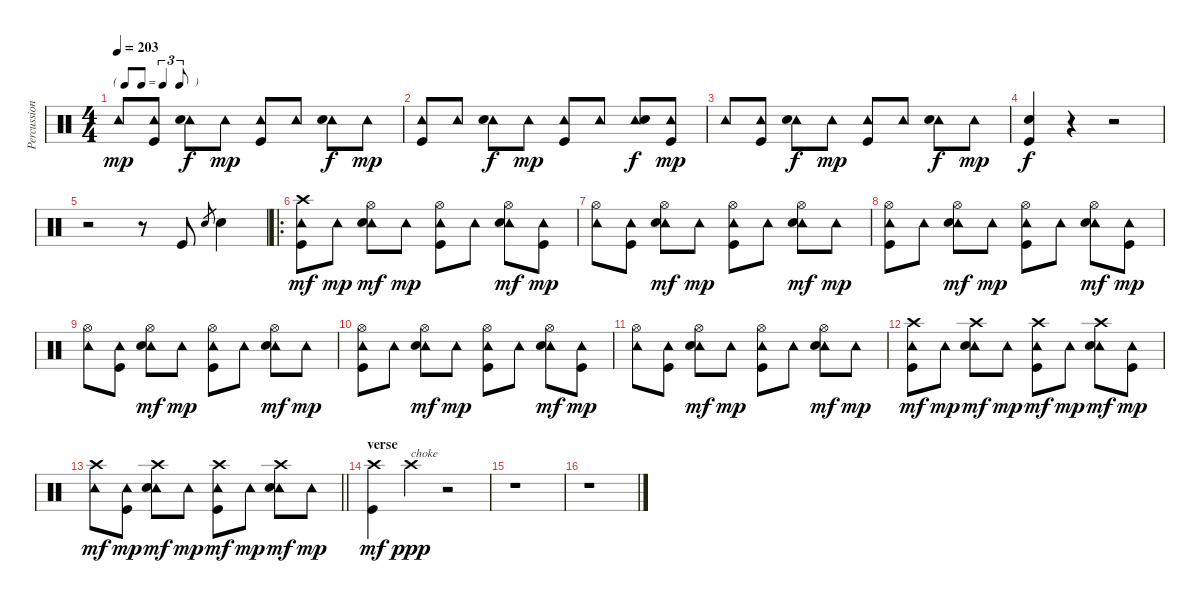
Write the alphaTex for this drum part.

\track ("Percussion" "Percussion") {instrument percussion}
\staff {score}
\articulation defaults
\ts (4 4)
\tf triplet8th
\tempo 203
\clef neutral
\ks c "Tambourine (hit)".8{dy mp}
("Tambourine (hit)" "Kick (hit)").8 ("Tambourine (hit)" "Snare (hit) 2").8{dy f} "Tambourine (hit)".8{dy mp} ("Tambourine (hit)" "Kick (hit)").8 "Tambourine (hit)".8 ("Tambourine (hit)" "Snare (hit) 2").8{dy f} "Tambourine (hit)".8{dy mp} |
("Tambourine (hit)" "Kick (hit)").8 "Tambourine (hit)".8 ("Tambourine (hit)" "Snare (hit) 2").8{dy f} "Tambourine (hit)".8{dy mp} ("Tambourine (hit)" "Kick (hit)").8 "Tambourine (hit)".8 ("Tambourine (hit)" "Snare (hit) 2").8{dy f} ("Tambourine (hit)" "Kick (hit)").8{dy mp} |
"Tambourine (hit)".8 ("Tambourine (hit)" "Kick (hit)").8 ("Tambourine (hit)" "Snare (hit) 2").8{dy f} "Tambourine (hit)".8{dy mp} ("Tambourine (hit)" "Kick (hit)").8 "Tambourine (hit)".8 ("Tambourine (hit)" "Snare (hit) 2").8{dy f} "Tambourine (hit)".8{dy mp} |
("Snare (hit) 2" "Kick (hit)").4{dy f} r.4 r.2 |
r.2 r.8 "Kick (hit)".8 "Snare (hit) 2".8{gr} "Snare (hit) 2".4 |
\ro
("Tambourine (hit)" "Crash high (hit)" "Kick (hit)").8{dy mf} "Tambourine (hit)".8{dy mp} ("Tambourine (hit)" "Hi-Hat (open)" "Snare (hit) 2").8{dy mf} "Tambourine (hit)".8{dy mp} ("Tambourine (hit)" "Hi-Hat (open)" "Kick (hit)").8 "Tambourine (hit)".8 ("Tambourine (hit)" "Hi-Hat (open)" "Snare (hit) 2").8{dy mf} ("Tambourine (hit)" "Kick (hit)").8{dy mp} |
("Tambourine (hit)" "Hi-Hat (open)").8 ("Tambourine (hit)" "Kick (hit)").8 ("Tambourine (hit)" "Hi-Hat (open)" "Snare (hit) 2").8{dy mf} "Tambourine (hit)".8{dy mp} ("Tambourine (hit)" "Hi-Hat (open)" "Kick (hit)").8 "Tambourine (hit)".8 ("Tambourine (hit)" "Hi-Hat (open)" "Snare (hit) 2").8{dy mf} "Tambourine (hit)".8{dy mp} |
("Tambourine (hit)" "Hi-Hat (open)" "Kick (hit)").8 "Tambourine (hit)".8 ("Tambourine (hit)" "Hi-Hat (open)" "Snare (hit) 2").8{dy mf} "Tambourine (hit)".8{dy mp} ("Tambourine (hit)" "Hi-Hat (open)" "Kick (hit)").8 "Tambourine (hit)".8 ("Tambourine (hit)" "Hi-Hat (open)" "Snare (hit) 2").8{dy mf} ("Tambourine (hit)" "Kick (hit)").8{dy mp} |
("Tambourine (hit)" "Hi-Hat (open)").8 ("Tambourine (hit)" "Kick (hit)").8 ("Tambourine (hit)" "Hi-Hat (open)" "Snare (hit) 2").8{dy mf} "Tambourine (hit)".8{dy mp} ("Tambourine (hit)" "Hi-Hat (open)" "Kick (hit)").8 "Tambourine (hit)".8 ("Tambourine (hit)" "Hi-Hat (open)" "Snare (hit) 2").8{dy mf} "Tambourine (hit)".8{dy mp} |
("Tambourine (hit)" "Hi-Hat (open)" "Kick (hit)").8 "Tambourine (hit)".8 ("Tambourine (hit)" "Hi-Hat (open)" "Snare (hit) 2").8{dy mf} "Tambourine (hit)".8{dy mp} ("Tambourine (hit)" "Hi-Hat (open)" "Kick (hit)").8 "Tambourine (hit)".8 ("Tambourine (hit)" "Hi-Hat (open)" "Snare (hit) 2").8{dy mf} ("Tambourine (hit)" "Kick (hit)").8{dy mp} |
("Tambourine (hit)" "Hi-Hat (open)").8 ("Tambourine (hit)" "Kick (hit)").8 ("Tambourine (hit)" "Hi-Hat (open)" "Snare (hit) 2").8{dy mf} "Tambourine (hit)".8{dy mp} ("Tambourine (hit)" "Hi-Hat (open)" "Kick (hit)").8 "Tambourine (hit)".8 ("Tambourine (hit)" "Hi-Hat (open)" "Snare (hit) 2").8{dy mf} "Tambourine (hit)".8{dy mp} |
("Tambourine (hit)" "Crash high (hit)" "Kick (hit)").8{dy mf} "Tambourine (hit)".8{dy mp} ("Tambourine (hit)" "Crash high (hit)" "Snare (hit) 2").8{dy mf} "Tambourine (hit)".8{dy mp} ("Tambourine (hit)" "Crash high (hit)" "Kick (hit)").8{dy mf} "Tambourine (hit)".8{dy mp} ("Tambourine (hit)" "Crash high (hit)" "Snare (hit) 2").8{dy mf} ("Tambourine (hit)" "Kick (hit)").8{dy mp} |
\barLineRight lightlight
("Tambourine (hit)" "Crash high (hit)").8{dy mf} ("Tambourine (hit)" "Kick (hit)").8{dy mp} ("Tambourine (hit)" "Crash high (hit)" "Snare (hit) 2").8{dy mf} "Tambourine (hit)".8{dy mp} ("Tambourine (hit)" "Crash high (hit)" "Kick (hit)").8{dy mf} "Tambourine (hit)".8{dy mp} ("Tambourine (hit)" "Crash high (hit)" "Snare (hit) 2").8{dy mf} "Tambourine (hit)".8{dy mp} |
\section ("" "verse")
("Crash high (hit)" "Kick (hit)").4{dy mf} "Crash high (hit)".4{txt "choke" dy ppp} r.2 |
r.1 |
r.1
